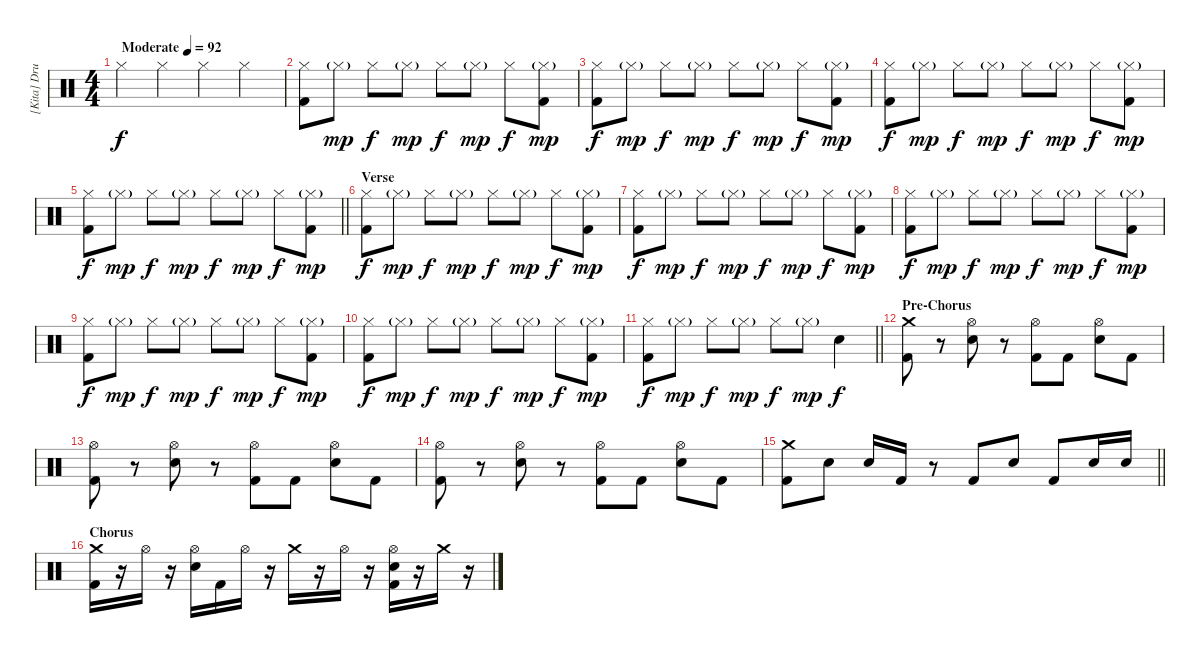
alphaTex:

\track ("[Kita] Drum" "[Kita] Dru") {instrument percussion}
\staff {score}
\articulation defaults
\ts (4 4)
\tempo (92 "Moderate")
\clef neutral
\ks c "Hi-Hat (closed)".4{dy f} "Hi-Hat (closed)".4 "Hi-Hat (closed)".4 "Hi-Hat (closed)".4
|
("Kick (hit) 2" "Hi-Hat (closed)").8 "Hi-Hat (closed)"{g}.8{dy mp} "Hi-Hat (closed)".8{dy f} "Hi-Hat (closed)"{g}.8{dy mp} "Hi-Hat (closed)".8{dy f} "Hi-Hat (closed)"{g}.8{dy mp} "Hi-Hat (closed)".8{dy f} ("Kick (hit) 2" "Hi-Hat (closed)"{g}).8{dy mp} |
("Kick (hit) 2" "Hi-Hat (closed)").8{dy f} "Hi-Hat (closed)"{g}.8{dy mp} "Hi-Hat (closed)".8{dy f} "Hi-Hat (closed)"{g}.8{dy mp} "Hi-Hat (closed)".8{dy f} "Hi-Hat (closed)"{g}.8{dy mp} "Hi-Hat (closed)".8{dy f} ("Kick (hit) 2" "Hi-Hat (closed)"{g}).8{dy mp} |
("Kick (hit) 2" "Hi-Hat (closed)").8{dy f} "Hi-Hat (closed)"{g}.8{dy mp} "Hi-Hat (closed)".8{dy f} "Hi-Hat (closed)"{g}.8{dy mp} "Hi-Hat (closed)".8{dy f} "Hi-Hat (closed)"{g}.8{dy mp} "Hi-Hat (closed)".8{dy f} ("Kick (hit) 2" "Hi-Hat (closed)"{g}).8{dy mp} |
\barLineRight lightlight
("Kick (hit) 2" "Hi-Hat (closed)").8{dy f} "Hi-Hat (closed)"{g}.8{dy mp} "Hi-Hat (closed)".8{dy f} "Hi-Hat (closed)"{g}.8{dy mp} "Hi-Hat (closed)".8{dy f} "Hi-Hat (closed)"{g}.8{dy mp} "Hi-Hat (closed)".8{dy f} ("Kick (hit) 2" "Hi-Hat (closed)"{g}).8{dy mp} |
\section ("" "Verse")
("Kick (hit) 2" "Hi-Hat (closed)").8{dy f} "Hi-Hat (closed)"{g}.8{dy mp} "Hi-Hat (closed)".8{dy f} "Hi-Hat (closed)"{g}.8{dy mp} "Hi-Hat (closed)".8{dy f} "Hi-Hat (closed)"{g}.8{dy mp} "Hi-Hat (closed)".8{dy f} ("Kick (hit) 2" "Hi-Hat (closed)"{g}).8{dy mp} |
("Kick (hit) 2" "Hi-Hat (closed)").8{dy f} "Hi-Hat (closed)"{g}.8{dy mp} "Hi-Hat (closed)".8{dy f} "Hi-Hat (closed)"{g}.8{dy mp} "Hi-Hat (closed)".8{dy f} "Hi-Hat (closed)"{g}.8{dy mp} "Hi-Hat (closed)".8{dy f} ("Kick (hit) 2" "Hi-Hat (closed)"{g}).8{dy mp} |
("Kick (hit) 2" "Hi-Hat (closed)").8{dy f} "Hi-Hat (closed)"{g}.8{dy mp} "Hi-Hat (closed)".8{dy f} "Hi-Hat (closed)"{g}.8{dy mp} "Hi-Hat (closed)".8{dy f} "Hi-Hat (closed)"{g}.8{dy mp} "Hi-Hat (closed)".8{dy f} ("Kick (hit) 2" "Hi-Hat (closed)"{g}).8{dy mp} |
("Kick (hit) 2" "Hi-Hat (closed)").8{dy f} "Hi-Hat (closed)"{g}.8{dy mp} "Hi-Hat (closed)".8{dy f} "Hi-Hat (closed)"{g}.8{dy mp} "Hi-Hat (closed)".8{dy f} "Hi-Hat (closed)"{g}.8{dy mp} "Hi-Hat (closed)".8{dy f} ("Kick (hit) 2" "Hi-Hat (closed)"{g}).8{dy mp} |
("Kick (hit) 2" "Hi-Hat (closed)").8{dy f} "Hi-Hat (closed)"{g}.8{dy mp} "Hi-Hat (closed)".8{dy f} "Hi-Hat (closed)"{g}.8{dy mp} "Hi-Hat (closed)".8{dy f} "Hi-Hat (closed)"{g}.8{dy mp} "Hi-Hat (closed)".8{dy f} ("Kick (hit) 2" "Hi-Hat (closed)"{g}).8{dy mp} |
\barLineRight lightlight
("Kick (hit) 2" "Hi-Hat (closed)").8{dy f} "Hi-Hat (closed)"{g}.8{dy mp} "Hi-Hat (closed)".8{dy f} "Hi-Hat (closed)"{g}.8{dy mp} "Hi-Hat (closed)".8{dy f} "Hi-Hat (closed)"{g}.8{dy mp} "Electric Snare (hit)".4{dy f} |
\section ("" "Pre-Chorus")
("Kick (hit) 2" "Crash medium (hit)").8 r.8 ("Hi-Hat (open)" "Electric Snare (hit)").8 r.8 ("Kick (hit) 2" "Hi-Hat (open)").8 "Kick (hit) 2".8 ("Hi-Hat (open)" "Electric Snare (hit)").8 "Kick (hit) 2".8 |
("Kick (hit) 2" "Hi-Hat (open)").8 r.8 ("Hi-Hat (open)" "Electric Snare (hit)").8 r.8 ("Kick (hit) 2" "Hi-Hat (open)").8 "Kick (hit) 2".8 ("Hi-Hat (open)" "Electric Snare (hit)").8 "Kick (hit) 2".8 |
("Kick (hit) 2" "Hi-Hat (open)").8 r.8 ("Hi-Hat (open)" "Electric Snare (hit)").8 r.8 ("Kick (hit) 2" "Hi-Hat (open)").8 "Kick (hit) 2".8 ("Hi-Hat (open)" "Electric Snare (hit)").8 "Kick (hit) 2".8 |
\barLineRight lightlight
("Kick (hit) 2" "Crash medium (hit)").8 "Electric Snare (hit)".8 "Electric Snare (hit)".16 "Kick (hit) 2".16 r.8 "Kick (hit) 2".8 "Electric Snare (hit)".8 "Kick (hit) 2".8 "Electric Snare (hit)".16 "Electric Snare (hit)".16 |
\section ("" "Chorus")
("Kick (hit) 2" "Crash medium (hit)").16 r.16 "Hi-Hat (open)".16 r.16 ("Hi-Hat (open)" "Electric Snare (hit)").16 "Kick (hit) 2".16 "Hi-Hat (open)".16 r.16 "Crash medium (hit)".16 r.16 "Hi-Hat (open)".16 r.16 ("Kick (hit) 2" "Hi-Hat (open)" "Electric Snare (hit)").16 r.16 "Crash medium (hit)".16 r.16
